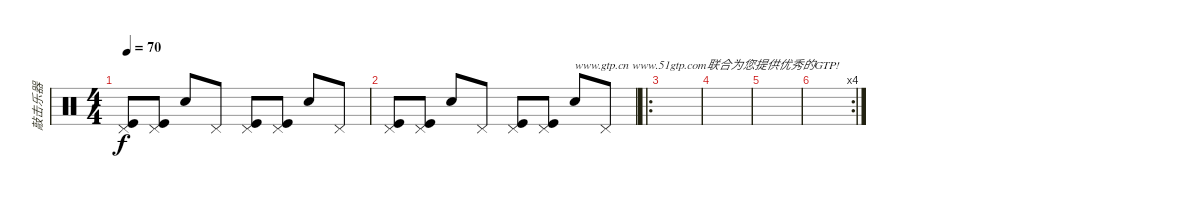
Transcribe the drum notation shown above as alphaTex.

\track ("敲击乐器" "敲击乐器") {instrument percussion}
\staff {score}
\articulation defaults
\ts (4 4)
\tempo 70
\clef neutral
\ks c
("Pedal Hi-Hat (hit)" "Kick (hit)").8{dy f} ("Pedal Hi-Hat (hit)" "Kick (hit)").8 "Snare (hit) 2".8 "Pedal Hi-Hat (hit)".8 ("Pedal Hi-Hat (hit)" "Kick (hit)").8 ("Pedal Hi-Hat (hit)" "Kick (hit)").8 "Snare (hit) 2".8 "Pedal Hi-Hat (hit)".8 |
("Pedal Hi-Hat (hit)" "Kick (hit)").8 ("Pedal Hi-Hat (hit)" "Kick (hit)").8 "Snare (hit) 2".8 "Pedal Hi-Hat (hit)".8 ("Pedal Hi-Hat (hit)" "Kick (hit)").8 ("Pedal Hi-Hat (hit)" "Kick (hit)").8 "Snare (hit) 2".8{txt "www.gtp.cn www.51gtp.com联合为您提供优秀的GTP!"} "Pedal Hi-Hat (hit)".8 |
\ro
|
|
|
\rc 4
